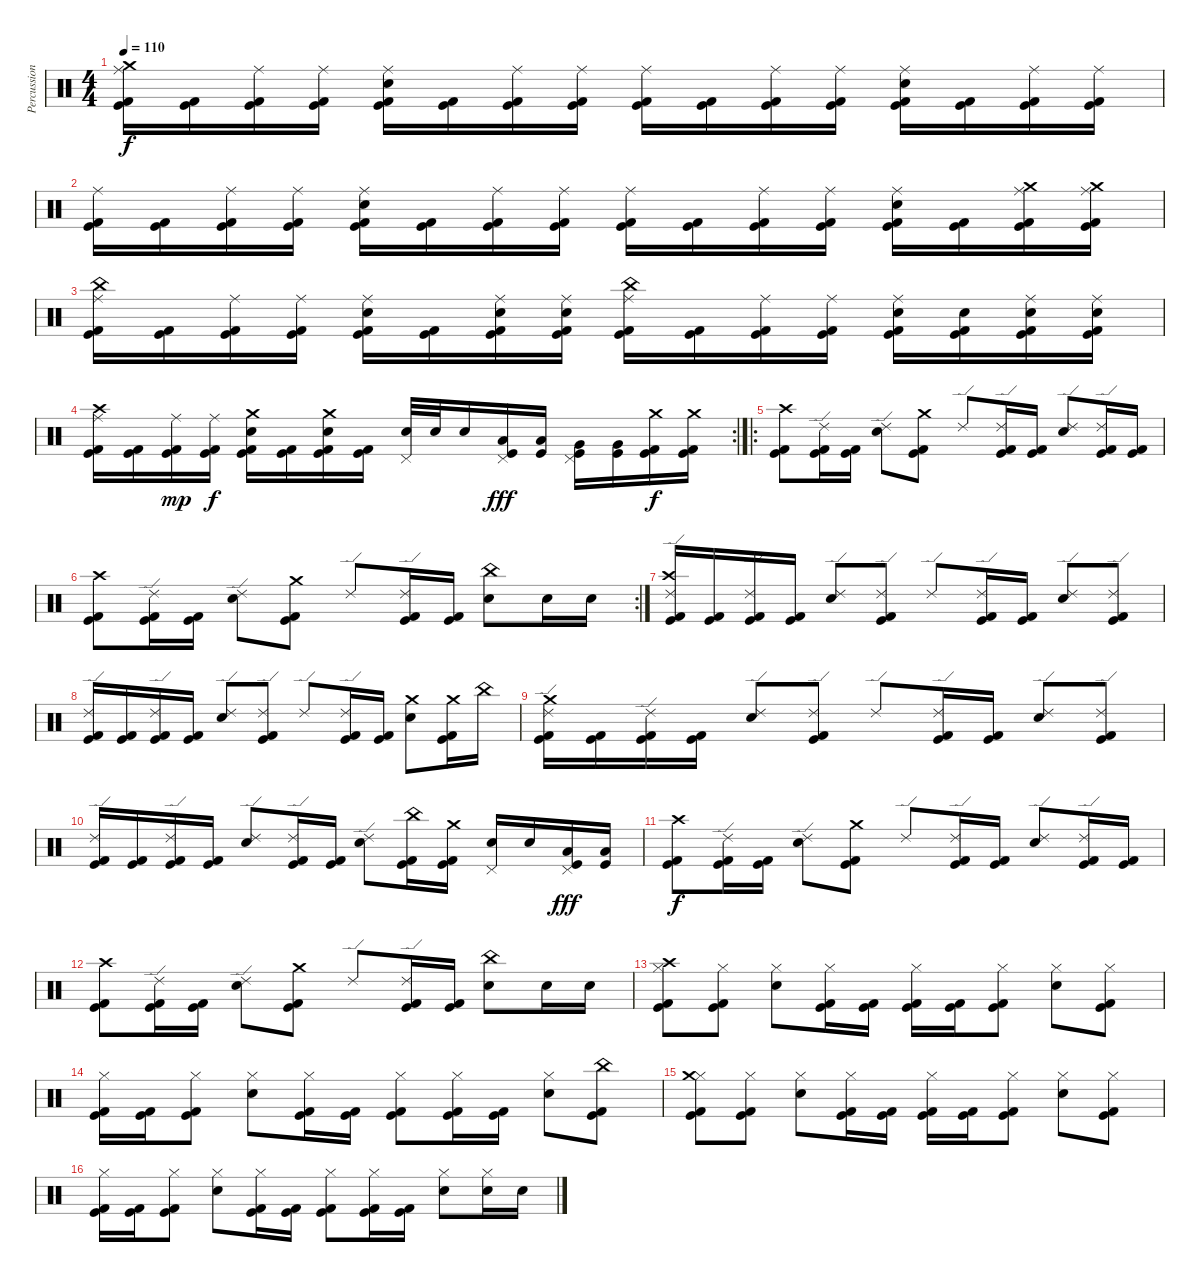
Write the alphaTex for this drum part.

\track ("Percussion" "Percussion") {instrument percussion}
\staff {score}
\articulation defaults
\ts (4 4)
\tempo 110
\clef neutral
\ks c
("Ride (middle)" "Crash medium (hit)" "Kick (hit) 2" "Kick (hit)").16{dy f} ("Kick (hit) 2" "Kick (hit)").16 ("Ride (middle)" "Kick (hit) 2" "Kick (hit)").16 ("Ride (middle)" "Kick (hit) 2" "Kick (hit)").16 ("Ride (middle)" "Snare (hit) 2" "Kick (hit) 2" "Kick (hit)").16 ("Kick (hit) 2" "Kick (hit)").16 ("Ride (middle)" "Kick (hit) 2" "Kick (hit)").16 ("Ride (middle)" "Kick (hit) 2" "Kick (hit)").16 ("Ride (middle)" "Kick (hit) 2" "Kick (hit)").16 ("Kick (hit) 2" "Kick (hit)").16 ("Ride (middle)" "Kick (hit) 2" "Kick (hit)").16 ("Ride (middle)" "Kick (hit) 2" "Kick (hit)").16 ("Ride (middle)" "Snare (hit) 2" "Kick (hit) 2" "Kick (hit)").16 ("Kick (hit) 2" "Kick (hit)").16 ("Ride (middle)" "Kick (hit) 2" "Kick (hit)").16 ("Ride (middle)" "Kick (hit) 2" "Kick (hit)").16 |
("Ride (middle)" "Kick (hit) 2" "Kick (hit)").16 ("Kick (hit) 2" "Kick (hit)").16 ("Ride (middle)" "Kick (hit) 2" "Kick (hit)").16 ("Ride (middle)" "Kick (hit) 2" "Kick (hit)").16 ("Ride (middle)" "Snare (hit) 2" "Kick (hit) 2" "Kick (hit)").16 ("Kick (hit) 2" "Kick (hit)").16 ("Ride (middle)" "Kick (hit) 2" "Kick (hit)").16 ("Ride (middle)" "Kick (hit) 2" "Kick (hit)").16 ("Ride (middle)" "Kick (hit) 2" "Kick (hit)").16 ("Kick (hit) 2" "Kick (hit)").16 ("Ride (middle)" "Kick (hit) 2" "Kick (hit)").16 ("Ride (middle)" "Kick (hit) 2" "Kick (hit)").16 ("Ride (middle)" "Snare (hit) 2" "Kick (hit) 2" "Kick (hit)").16 ("Kick (hit) 2" "Kick (hit)").16 ("Ride (middle)" "Crash medium (hit)" "Kick (hit) 2" "Kick (hit)").16 ("Ride (middle)" "Crash medium (hit)" "Kick (hit) 2" "Kick (hit)").16 |
("Ride (middle)" "China (hit)" "Kick (hit) 2" "Kick (hit)").16 ("Kick (hit) 2" "Kick (hit)").16 ("Ride (middle)" "Kick (hit) 2" "Kick (hit)").16 ("Ride (middle)" "Kick (hit) 2" "Kick (hit)").16 ("Ride (middle)" "Snare (hit) 2" "Kick (hit) 2" "Kick (hit)").16 ("Kick (hit) 2" "Kick (hit)").16 ("Ride (middle)" "Snare (hit) 2" "Kick (hit) 2" "Kick (hit)").16 ("Ride (middle)" "Snare (hit) 2" "Kick (hit) 2" "Kick (hit)").16 ("Ride (middle)" "China (hit)" "Kick (hit) 2" "Kick (hit)").16 ("Kick (hit) 2" "Kick (hit)").16 ("Ride (middle)" "Kick (hit) 2" "Kick (hit)").16 ("Ride (middle)" "Kick (hit) 2" "Kick (hit)").16 ("Ride (middle)" "Snare (hit) 2" "Kick (hit) 2" "Kick (hit)").16 ("Snare (hit) 2" "Kick (hit) 2" "Kick (hit)").16 ("Ride (middle)" "Snare (hit) 2" "Kick (hit) 2" "Kick (hit)").16 ("Ride (middle)" "Snare (hit) 2" "Kick (hit) 2" "Kick (hit)").16 |
\rc 2
("Ride (middle)" "Crash high (hit)" "Kick (hit) 2" "Kick (hit)").16 ("Kick (hit) 2" "Kick (hit)").16 ("Ride (middle)" "Kick (hit) 2" "Kick (hit)").16{dy mp} ("Ride (middle)" "Kick (hit) 2" "Kick (hit)").16{dy f} ("Crash medium (hit)" "Snare (hit) 2" "Kick (hit) 2" "Kick (hit)").16 ("Kick (hit) 2" "Kick (hit)").16 ("Crash medium (hit)" "Snare (hit) 2" "Kick (hit) 2" "Kick (hit)").16 ("Kick (hit) 2" "Kick (hit)").16 ("Pedal Hi-Hat (hit)" "Snare (hit) 2").32 "Snare (hit) 2".32 "Snare (hit) 2".16 ("Pedal Hi-Hat (hit)" "Low Tom (hit)" "Kick (hit)").16{dy fff} ("Low Tom (hit)" "Kick (hit)").16 ("Pedal Hi-Hat (hit)" "Very Low Tom (hit)" "Kick (hit)").16 ("Very Low Tom (hit)" "Kick (hit)").16 ("Crash medium (hit)" "Kick (hit) 2" "Kick (hit)").16{dy f} ("Crash medium (hit)" "Kick (hit) 2" "Kick (hit)").16 |
\ro
("Crash high (hit)" "Kick (hit) 2" "Kick (hit)").8 ("Ride (edge) 2" "Kick (hit) 2" "Kick (hit)").16 ("Kick (hit) 2" "Kick (hit)").16 ("Ride (edge) 2" "Snare (hit) 2").8 ("Crash medium (hit)" "Kick (hit) 2" "Kick (hit)").8 "Ride (edge) 2".8 ("Ride (edge) 2" "Kick (hit) 2" "Kick (hit)").16 ("Kick (hit) 2" "Kick (hit)").16 ("Ride (edge) 2" "Snare (hit) 2").8 ("Ride (edge) 2" "Kick (hit) 2" "Kick (hit)").16 ("Kick (hit) 2" "Kick (hit)").16 |
\rc 2
("Crash high (hit)" "Kick (hit) 2" "Kick (hit)").8 ("Ride (edge) 2" "Kick (hit) 2" "Kick (hit)").16 ("Kick (hit) 2" "Kick (hit)").16 ("Ride (edge) 2" "Snare (hit) 2").8 ("Crash medium (hit)" "Kick (hit) 2" "Kick (hit)").8 "Ride (edge) 2".8 ("Ride (edge) 2" "Kick (hit) 2" "Kick (hit)").16 ("Kick (hit) 2" "Kick (hit)").16 ("China (hit)" "Snare (hit) 2").8 "Snare (hit) 2".16 "Snare (hit) 2".16 |
("Ride (edge) 2" "Crash high (hit)" "Kick (hit) 2" "Kick (hit)").16 ("Kick (hit) 2" "Kick (hit)").16 ("Ride (edge) 2" "Kick (hit) 2" "Kick (hit)").16 ("Kick (hit) 2" "Kick (hit)").16 ("Ride (edge) 2" "Snare (hit) 2").8 ("Ride (edge) 2" "Kick (hit) 2" "Kick (hit)").8 "Ride (edge) 2".8 ("Ride (edge) 2" "Kick (hit) 2" "Kick (hit)").16 ("Kick (hit) 2" "Kick (hit)").16 ("Ride (edge) 2" "Snare (hit) 2").8 ("Ride (edge) 2" "Kick (hit) 2" "Kick (hit)").8 |
("Ride (edge) 2" "Kick (hit) 2" "Kick (hit)").16 ("Kick (hit) 2" "Kick (hit)").16 ("Ride (edge) 2" "Kick (hit) 2" "Kick (hit)").16 ("Kick (hit) 2" "Kick (hit)").16 ("Ride (edge) 2" "Snare (hit) 2").8 ("Ride (edge) 2" "Kick (hit) 2" "Kick (hit)").8 "Ride (edge) 2".8 ("Ride (edge) 2" "Kick (hit) 2" "Kick (hit)").16 ("Kick (hit) 2" "Kick (hit)").16 ("Crash medium (hit)" "Snare (hit) 2").8 ("Crash medium (hit)" "Kick (hit) 2" "Kick (hit)").16 "China (hit)".16 |
("Ride (edge) 2" "Crash medium (hit)" "Kick (hit) 2" "Kick (hit)").16 ("Kick (hit) 2" "Kick (hit)").16 ("Ride (edge) 2" "Kick (hit) 2" "Kick (hit)").16 ("Kick (hit) 2" "Kick (hit)").16 ("Ride (edge) 2" "Snare (hit) 2").8 ("Ride (edge) 2" "Kick (hit) 2" "Kick (hit)").8 "Ride (edge) 2".8 ("Ride (edge) 2" "Kick (hit) 2" "Kick (hit)").16 ("Kick (hit) 2" "Kick (hit)").16 ("Ride (edge) 2" "Snare (hit) 2").8 ("Ride (edge) 2" "Kick (hit) 2" "Kick (hit)").8 |
("Ride (edge) 2" "Kick (hit) 2" "Kick (hit)").16 ("Kick (hit) 2" "Kick (hit)").16 ("Ride (edge) 2" "Kick (hit) 2" "Kick (hit)").16 ("Kick (hit) 2" "Kick (hit)").16 ("Ride (edge) 2" "Snare (hit) 2").8 ("Ride (edge) 2" "Kick (hit) 2" "Kick (hit)").16 ("Kick (hit) 2" "Kick (hit)").16 ("Ride (edge) 2" "Snare (hit) 2").8 ("China (hit)" "Kick (hit) 2" "Kick (hit)").16 ("Crash medium (hit)" "Kick (hit) 2" "Kick (hit)").16 ("Pedal Hi-Hat (hit)" "Snare (hit) 2").16 "Snare (hit) 2".16 ("Pedal Hi-Hat (hit)" "Low Tom (hit)" "Kick (hit)").16{dy fff} ("Low Tom (hit)" "Kick (hit)").16 |
("Crash high (hit)" "Kick (hit) 2" "Kick (hit)").8{dy f} ("Ride (edge) 2" "Kick (hit) 2" "Kick (hit)").16 ("Kick (hit) 2" "Kick (hit)").16 ("Ride (edge) 2" "Snare (hit) 2").8 ("Crash medium (hit)" "Kick (hit) 2" "Kick (hit)").8 "Ride (edge) 2".8 ("Ride (edge) 2" "Kick (hit) 2" "Kick (hit)").16 ("Kick (hit) 2" "Kick (hit)").16 ("Ride (edge) 2" "Snare (hit) 2").8 ("Ride (edge) 2" "Kick (hit) 2" "Kick (hit)").16 ("Kick (hit) 2" "Kick (hit)").16 |
("Crash high (hit)" "Kick (hit) 2" "Kick (hit)").8 ("Ride (edge) 2" "Kick (hit) 2" "Kick (hit)").16 ("Kick (hit) 2" "Kick (hit)").16 ("Ride (edge) 2" "Snare (hit) 2").8 ("Crash medium (hit)" "Kick (hit) 2" "Kick (hit)").8 "Ride (edge) 2".8 ("Ride (edge) 2" "Kick (hit) 2" "Kick (hit)").16 ("Kick (hit) 2" "Kick (hit)").16 ("China (hit)" "Snare (hit) 2").8 "Snare (hit) 2".16 "Snare (hit) 2".16 |
("Hi-Hat (closed)" "Crash high (hit)" "Kick (hit) 2" "Kick (hit)").8 ("Hi-Hat (closed)" "Kick (hit) 2" "Kick (hit)").8 ("Hi-Hat (closed)" "Snare (hit) 2").8 ("Hi-Hat (closed)" "Kick (hit) 2" "Kick (hit)").16 ("Kick (hit) 2" "Kick (hit)").16 ("Hi-Hat (closed)" "Kick (hit) 2" "Kick (hit)").16 ("Kick (hit) 2" "Kick (hit)").16 ("Hi-Hat (closed)" "Kick (hit) 2" "Kick (hit)").8 ("Hi-Hat (closed)" "Snare (hit) 2").8 ("Hi-Hat (closed)" "Kick (hit) 2" "Kick (hit)").8 |
("Hi-Hat (closed)" "Kick (hit) 2" "Kick (hit)").16 ("Kick (hit) 2" "Kick (hit)").16 ("Hi-Hat (closed)" "Kick (hit) 2" "Kick (hit)").8 ("Hi-Hat (closed)" "Snare (hit) 2").8 ("Hi-Hat (closed)" "Kick (hit) 2" "Kick (hit)").16 ("Kick (hit) 2" "Kick (hit)").16 ("Hi-Hat (closed)" "Kick (hit) 2" "Kick (hit)").8 ("Hi-Hat (closed)" "Kick (hit) 2" "Kick (hit)").16 ("Kick (hit) 2" "Kick (hit)").16 ("Hi-Hat (closed)" "Snare (hit) 2").8 ("China (hit)" "Kick (hit) 2" "Kick (hit)").8 |
("Hi-Hat (closed)" "Crash medium (hit)" "Kick (hit) 2" "Kick (hit)").8 ("Hi-Hat (closed)" "Kick (hit) 2" "Kick (hit)").8 ("Hi-Hat (closed)" "Snare (hit) 2").8 ("Hi-Hat (closed)" "Kick (hit) 2" "Kick (hit)").16 ("Kick (hit) 2" "Kick (hit)").16 ("Hi-Hat (closed)" "Kick (hit) 2" "Kick (hit)").16 ("Kick (hit) 2" "Kick (hit)").16 ("Hi-Hat (closed)" "Kick (hit) 2" "Kick (hit)").8 ("Hi-Hat (closed)" "Snare (hit) 2").8 ("Hi-Hat (closed)" "Kick (hit) 2" "Kick (hit)").8 |
("Hi-Hat (closed)" "Kick (hit) 2" "Kick (hit)").16 ("Kick (hit) 2" "Kick (hit)").16 ("Hi-Hat (closed)" "Kick (hit) 2" "Kick (hit)").8 ("Hi-Hat (closed)" "Snare (hit) 2").8 ("Hi-Hat (closed)" "Kick (hit) 2" "Kick (hit)").16 ("Kick (hit) 2" "Kick (hit)").16 ("Hi-Hat (closed)" "Kick (hit) 2" "Kick (hit)").8 ("Hi-Hat (closed)" "Kick (hit) 2" "Kick (hit)").16 ("Kick (hit) 2" "Kick (hit)").16 ("Hi-Hat (closed)" "Snare (hit) 2").8 ("Hi-Hat (closed)" "Snare (hit) 2").16 "Snare (hit) 2".16
